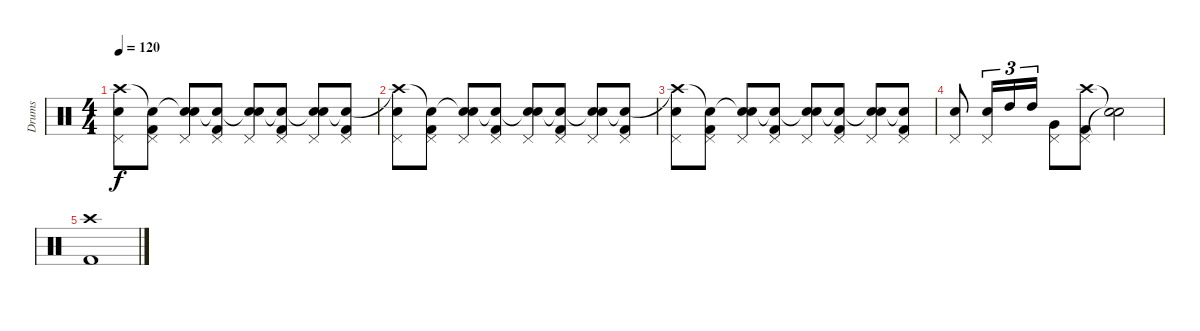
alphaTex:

\track ("Drums" "Drums") {instrument percussion}
\staff {score}
\articulation defaults
\ts (4 4)
\tempo 120
\clef neutral
\ks c
("Crash high (hit)"{t} "Pedal Hi-Hat (hit)" "Electric Snare (hit)").8{dy f} ("Snare (hit)"{t} "Pedal Hi-Hat (hit)" "Kick (hit) 2").8 ("Snare (hit)"{t} "Pedal Hi-Hat (hit)" "Electric Snare (hit)").8 ("Snare (hit)"{t} "Pedal Hi-Hat (hit)" "Kick (hit) 2").8 ("Snare (hit)"{t} "Pedal Hi-Hat (hit)" "Electric Snare (hit)").8 ("Snare (hit)"{t} "Pedal Hi-Hat (hit)" "Kick (hit) 2").8 ("Snare (hit)"{t} "Pedal Hi-Hat (hit)" "Electric Snare (hit)").8 ("Snare (hit)"{t} "Pedal Hi-Hat (hit)" "Kick (hit) 2").8 |
("Crash high (hit)"{t} "Pedal Hi-Hat (hit)" "Electric Snare (hit)").8 ("Snare (hit)"{t} "Pedal Hi-Hat (hit)" "Kick (hit) 2").8 ("Snare (hit)"{t} "Pedal Hi-Hat (hit)" "Electric Snare (hit)").8 ("Snare (hit)"{t} "Pedal Hi-Hat (hit)" "Kick (hit) 2").8 ("Snare (hit)"{t} "Pedal Hi-Hat (hit)" "Electric Snare (hit)").8 ("Snare (hit)"{t} "Pedal Hi-Hat (hit)" "Kick (hit) 2").8 ("Snare (hit)"{t} "Pedal Hi-Hat (hit)" "Electric Snare (hit)").8 ("Snare (hit)"{t} "Pedal Hi-Hat (hit)" "Kick (hit) 2").8 |
("Crash high (hit)"{t} "Pedal Hi-Hat (hit)" "Electric Snare (hit)").8 ("Snare (hit)"{t} "Pedal Hi-Hat (hit)" "Kick (hit) 2").8 ("Snare (hit)"{t} "Pedal Hi-Hat (hit)" "Electric Snare (hit)").8 ("Snare (hit)"{t} "Pedal Hi-Hat (hit)" "Kick (hit) 2").8 ("Snare (hit)"{t} "Pedal Hi-Hat (hit)" "Electric Snare (hit)").8 ("Snare (hit)"{t} "Pedal Hi-Hat (hit)" "Kick (hit) 2").8 ("Snare (hit)"{t} "Pedal Hi-Hat (hit)" "Electric Snare (hit)").8 ("Snare (hit)"{t} "Pedal Hi-Hat (hit)" "Kick (hit) 2").8 |
("Pedal Hi-Hat (hit)" "Electric Snare (hit)").8 ("Pedal Hi-Hat (hit)" "Electric Snare (hit)").16{tu (3 2)} "High Tom (hit)".16{tu (3 2)} "High Tom (hit)".16{tu (3 2)} ("Pedal Hi-Hat (hit)" "Very Low Tom (hit)").8 ("Crash high (hit)" "Pedal Hi-Hat (hit)" "Kick (hit) 2").8 ("Snare (hit)"{t} "Snare (hit)"{t}).2 |
("Crash high (hit)" "Kick (hit) 2").1
